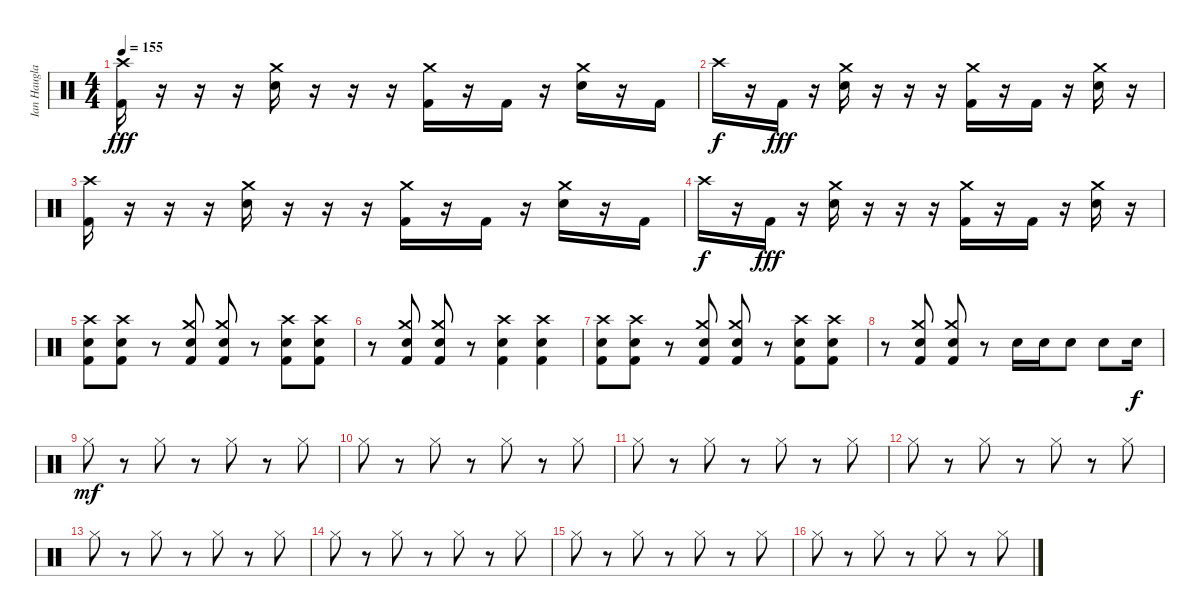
\track ("Ian Haugland" "Ian Haugla") {instrument percussion}
\staff {score}
\articulation defaults
\ts (4 4)
\tempo 155
\clef neutral
\ks c
("Crash high (hit)" "Kick (hit) 2").16{dy fff} r.16 r.16 r.16 ("Crash medium (hit)" "Electric Snare (hit)").16 r.16 r.16 r.16 ("Crash medium (hit)" "Kick (hit) 2").16 r.16 "Kick (hit) 2".16 r.16 ("Crash medium (hit)" "Electric Snare (hit)").16 r.16 "Kick (hit) 2".16 |
"Crash high (hit)".16{dy f} r.16 "Kick (hit) 2".16{dy fff} r.16 ("Crash medium (hit)" "Electric Snare (hit)").16 r.16 r.16 r.16 ("Crash medium (hit)" "Kick (hit) 2").16 r.16 "Kick (hit) 2".16 r.16 ("Crash medium (hit)" "Electric Snare (hit)").16 r.16 |
("Crash high (hit)" "Kick (hit) 2").16 r.16 r.16 r.16 ("Crash medium (hit)" "Electric Snare (hit)").16 r.16 r.16 r.16 ("Crash medium (hit)" "Kick (hit) 2").16 r.16 "Kick (hit) 2".16 r.16 ("Crash medium (hit)" "Electric Snare (hit)").16 r.16 "Kick (hit) 2".16 |
"Crash high (hit)".16{dy f} r.16 "Kick (hit) 2".16{dy fff} r.16 ("Crash medium (hit)" "Electric Snare (hit)").16 r.16 r.16 r.16 ("Crash medium (hit)" "Kick (hit) 2").16 r.16 "Kick (hit) 2".16 r.16 ("Crash medium (hit)" "Electric Snare (hit)").16 r.16 |
("Crash high (hit)" "Electric Snare (hit)" "Kick (hit) 2").8 ("Crash high (hit)" "Electric Snare (hit)" "Kick (hit) 2").8 r.8 ("Crash medium (hit)" "Electric Snare (hit)" "Kick (hit) 2").8 ("Crash medium (hit)" "Electric Snare (hit)" "Kick (hit) 2").8 r.8 ("Crash high (hit)" "Electric Snare (hit)" "Kick (hit) 2").8 ("Crash high (hit)" "Electric Snare (hit)" "Kick (hit) 2").8 |
r.8 ("Crash medium (hit)" "Electric Snare (hit)" "Kick (hit) 2").8 ("Crash medium (hit)" "Electric Snare (hit)" "Kick (hit) 2").8 r.8 ("Crash high (hit)" "Electric Snare (hit)" "Kick (hit) 2").4 ("Crash high (hit)" "Electric Snare (hit)" "Kick (hit) 2").4 |
("Crash high (hit)" "Electric Snare (hit)" "Kick (hit) 2").8 ("Crash high (hit)" "Electric Snare (hit)" "Kick (hit) 2").8 r.8 ("Crash medium (hit)" "Electric Snare (hit)" "Kick (hit) 2").8 ("Crash medium (hit)" "Electric Snare (hit)" "Kick (hit) 2").8 r.8 ("Crash high (hit)" "Electric Snare (hit)" "Kick (hit) 2").8 ("Crash high (hit)" "Electric Snare (hit)" "Kick (hit) 2").8 |
r.8 ("Crash medium (hit)" "Electric Snare (hit)" "Kick (hit) 2").8 ("Crash medium (hit)" "Electric Snare (hit)" "Kick (hit) 2").8 r.8 "Electric Snare (hit)".16 "Electric Snare (hit)".16 "Electric Snare (hit)".8 "Electric Snare (hit)".8 "Electric Snare (hit)".16{dy f} |
"Hi-Hat (closed)".8{dy mf} r.8 "Hi-Hat (closed)".8 r.8 "Hi-Hat (closed)".8 r.8 "Hi-Hat (closed)".8 |
"Hi-Hat (closed)".8 r.8 "Hi-Hat (closed)".8 r.8 "Hi-Hat (closed)".8 r.8 "Hi-Hat (closed)".8 |
"Hi-Hat (closed)".8 r.8 "Hi-Hat (closed)".8 r.8 "Hi-Hat (closed)".8 r.8 "Hi-Hat (closed)".8 |
"Hi-Hat (closed)".8 r.8 "Hi-Hat (closed)".8 r.8 "Hi-Hat (closed)".8 r.8 "Hi-Hat (closed)".8 |
"Hi-Hat (closed)".8 r.8 "Hi-Hat (closed)".8 r.8 "Hi-Hat (closed)".8 r.8 "Hi-Hat (closed)".8 |
"Hi-Hat (closed)".8 r.8 "Hi-Hat (closed)".8 r.8 "Hi-Hat (closed)".8 r.8 "Hi-Hat (closed)".8 |
"Hi-Hat (closed)".8 r.8 "Hi-Hat (closed)".8 r.8 "Hi-Hat (closed)".8 r.8 "Hi-Hat (closed)".8 |
"Hi-Hat (closed)".8 r.8 "Hi-Hat (closed)".8 r.8 "Hi-Hat (closed)".8 r.8 "Hi-Hat (closed)".8
